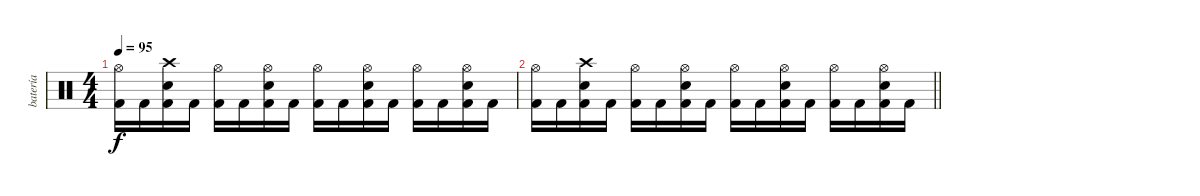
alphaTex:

\track ("batería" "batería") {instrument percussion}
\staff {score}
\articulation defaults
\ts (4 4)
\tempo 95
\clef neutral
\ks c
("Hi-Hat (open)" "Kick (hit) 2").16{dy f} "Kick (hit) 2".16 ("Crash high (hit)" "Electric Snare (hit)" "Kick (hit) 2").16 "Kick (hit) 2".16 ("Hi-Hat (open)" "Kick (hit) 2").16 "Kick (hit) 2".16 ("Hi-Hat (open)" "Electric Snare (hit)" "Kick (hit) 2").16 "Kick (hit) 2".16 ("Hi-Hat (open)" "Kick (hit) 2").16 "Kick (hit) 2".16 ("Hi-Hat (open)" "Electric Snare (hit)" "Kick (hit) 2").16 "Kick (hit) 2".16 ("Hi-Hat (open)" "Kick (hit) 2").16 "Kick (hit) 2".16 ("Hi-Hat (open)" "Electric Snare (hit)" "Kick (hit) 2").16 "Kick (hit) 2".16 |
\barLineRight lightlight
("Hi-Hat (open)" "Kick (hit) 2").16 "Kick (hit) 2".16 ("Crash high (hit)" "Electric Snare (hit)" "Kick (hit) 2").16 "Kick (hit) 2".16 ("Hi-Hat (open)" "Kick (hit) 2").16 "Kick (hit) 2".16 ("Hi-Hat (open)" "Electric Snare (hit)" "Kick (hit) 2").16 "Kick (hit) 2".16 ("Hi-Hat (open)" "Kick (hit) 2").16 "Kick (hit) 2".16 ("Hi-Hat (open)" "Electric Snare (hit)" "Kick (hit) 2").16 "Kick (hit) 2".16 ("Hi-Hat (open)" "Kick (hit) 2").16 "Kick (hit) 2".16 ("Hi-Hat (open)" "Electric Snare (hit)" "Kick (hit) 2").16 "Kick (hit) 2".16
